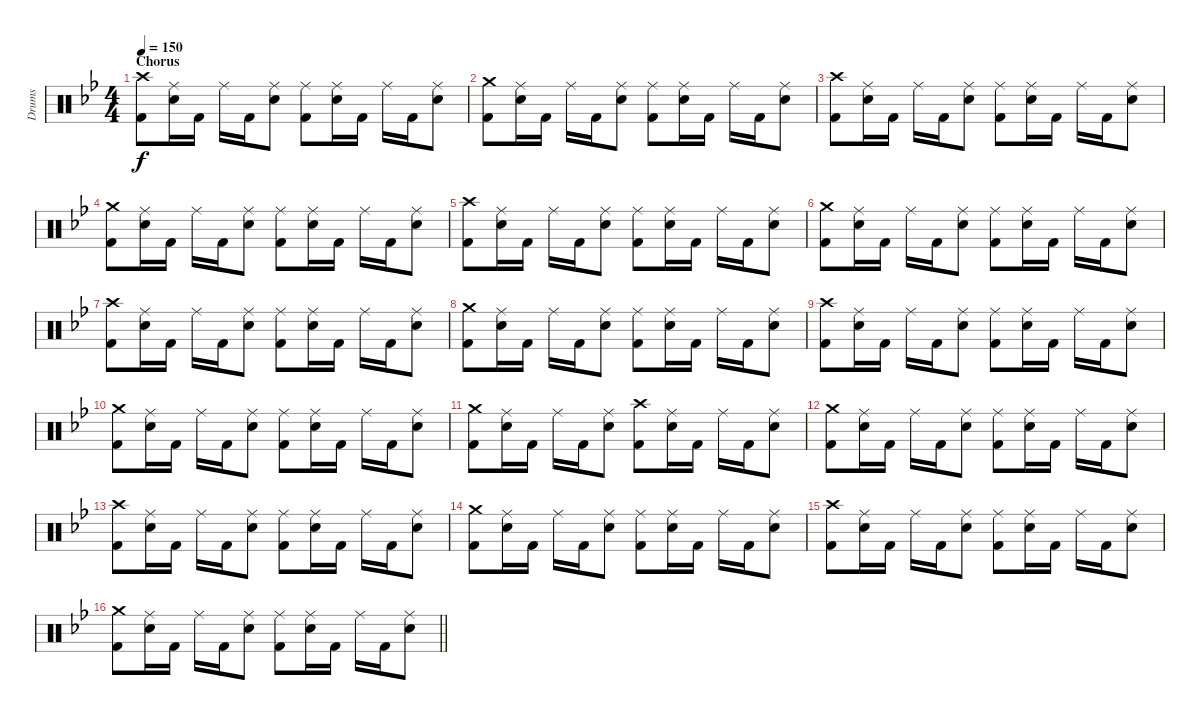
\track ("Drums" "Drums") {instrument percussion}
\staff {score}
\articulation defaults
\ts (4 4)
\section ("" "Chorus")
\tempo 150
\clef neutral
\ks bb
("Crash high (hit)" "Kick (hit) 2").8{dy f} ("Ride (middle)" "Snare (hit) 2").16 "Kick (hit) 2".16 "Ride (middle)".16 "Kick (hit) 2".16 ("Ride (middle)" "Snare (hit) 2").8 ("Ride (middle)" "Kick (hit) 2").8 ("Ride (middle)" "Snare (hit) 2").16 "Kick (hit) 2".16 "Ride (middle)".16 "Kick (hit) 2".16 ("Ride (middle)" "Snare (hit) 2").8 |
("Crash medium (hit)" "Kick (hit) 2").8 ("Ride (middle)" "Snare (hit) 2").16 "Kick (hit) 2".16 "Ride (middle)".16 "Kick (hit) 2".16 ("Ride (middle)" "Snare (hit) 2").8 ("Ride (middle)" "Kick (hit) 2").8 ("Ride (middle)" "Snare (hit) 2").16 "Kick (hit) 2".16 "Ride (middle)".16 "Kick (hit) 2".16 ("Ride (middle)" "Snare (hit) 2").8 |
("Crash high (hit)" "Kick (hit) 2").8 ("Ride (middle)" "Snare (hit) 2").16 "Kick (hit) 2".16 "Ride (middle)".16 "Kick (hit) 2".16 ("Ride (middle)" "Snare (hit) 2").8 ("Ride (middle)" "Kick (hit) 2").8 ("Ride (middle)" "Snare (hit) 2").16 "Kick (hit) 2".16 "Ride (middle)".16 "Kick (hit) 2".16 ("Ride (middle)" "Snare (hit) 2").8 |
("Crash medium (hit)" "Kick (hit) 2").8 ("Ride (middle)" "Snare (hit) 2").16 "Kick (hit) 2".16 "Ride (middle)".16 "Kick (hit) 2".16 ("Ride (middle)" "Snare (hit) 2").8 ("Ride (middle)" "Kick (hit) 2").8 ("Ride (middle)" "Snare (hit) 2").16 "Kick (hit) 2".16 "Ride (middle)".16 "Kick (hit) 2".16 ("Ride (middle)" "Snare (hit) 2").8 |
("Crash high (hit)" "Kick (hit) 2").8 ("Ride (middle)" "Snare (hit) 2").16 "Kick (hit) 2".16 "Ride (middle)".16 "Kick (hit) 2".16 ("Ride (middle)" "Snare (hit) 2").8 ("Ride (middle)" "Kick (hit) 2").8 ("Ride (middle)" "Snare (hit) 2").16 "Kick (hit) 2".16 "Ride (middle)".16 "Kick (hit) 2".16 ("Ride (middle)" "Snare (hit) 2").8 |
("Crash medium (hit)" "Kick (hit) 2").8 ("Ride (middle)" "Snare (hit) 2").16 "Kick (hit) 2".16 "Ride (middle)".16 "Kick (hit) 2".16 ("Ride (middle)" "Snare (hit) 2").8 ("Ride (middle)" "Kick (hit) 2").8 ("Ride (middle)" "Snare (hit) 2").16 "Kick (hit) 2".16 "Ride (middle)".16 "Kick (hit) 2".16 ("Ride (middle)" "Snare (hit) 2").8 |
("Crash high (hit)" "Kick (hit) 2").8 ("Ride (middle)" "Snare (hit) 2").16 "Kick (hit) 2".16 "Ride (middle)".16 "Kick (hit) 2".16 ("Ride (middle)" "Snare (hit) 2").8 ("Ride (middle)" "Kick (hit) 2").8 ("Ride (middle)" "Snare (hit) 2").16 "Kick (hit) 2".16 "Ride (middle)".16 "Kick (hit) 2".16 ("Ride (middle)" "Snare (hit) 2").8 |
("Crash medium (hit)" "Kick (hit) 2").8 ("Ride (middle)" "Snare (hit) 2").16 "Kick (hit) 2".16 "Ride (middle)".16 "Kick (hit) 2".16 ("Ride (middle)" "Snare (hit) 2").8 ("Ride (middle)" "Kick (hit) 2").8 ("Ride (middle)" "Snare (hit) 2").16 "Kick (hit) 2".16 "Ride (middle)".16 "Kick (hit) 2".16 ("Ride (middle)" "Snare (hit) 2").8 |
("Crash high (hit)" "Kick (hit) 2").8 ("Ride (middle)" "Snare (hit) 2").16 "Kick (hit) 2".16 "Ride (middle)".16 "Kick (hit) 2".16 ("Ride (middle)" "Snare (hit) 2").8 ("Ride (middle)" "Kick (hit) 2").8 ("Ride (middle)" "Snare (hit) 2").16 "Kick (hit) 2".16 "Ride (middle)".16 "Kick (hit) 2".16 ("Ride (middle)" "Snare (hit) 2").8 |
("Crash medium (hit)" "Kick (hit) 2").8 ("Ride (middle)" "Snare (hit) 2").16 "Kick (hit) 2".16 "Ride (middle)".16 "Kick (hit) 2".16 ("Ride (middle)" "Snare (hit) 2").8 ("Ride (middle)" "Kick (hit) 2").8 ("Ride (middle)" "Snare (hit) 2").16 "Kick (hit) 2".16 "Ride (middle)".16 "Kick (hit) 2".16 ("Ride (middle)" "Snare (hit) 2").8 |
("Crash medium (hit)" "Kick (hit) 2").8 ("Ride (middle)" "Snare (hit) 2").16 "Kick (hit) 2".16 "Ride (middle)".16 "Kick (hit) 2".16 ("Ride (middle)" "Snare (hit) 2").8 ("Crash high (hit)" "Kick (hit) 2").8 ("Ride (middle)" "Snare (hit) 2").16 "Kick (hit) 2".16 "Ride (middle)".16 "Kick (hit) 2".16 ("Ride (middle)" "Snare (hit) 2").8 |
("Crash medium (hit)" "Kick (hit) 2").8 ("Ride (middle)" "Snare (hit) 2").16 "Kick (hit) 2".16 "Ride (middle)".16 "Kick (hit) 2".16 ("Ride (middle)" "Snare (hit) 2").8 ("Ride (middle)" "Kick (hit) 2").8 ("Ride (middle)" "Snare (hit) 2").16 "Kick (hit) 2".16 "Ride (middle)".16 "Kick (hit) 2".16 ("Ride (middle)" "Snare (hit) 2").8 |
("Crash high (hit)" "Kick (hit) 2").8 ("Ride (middle)" "Snare (hit) 2").16 "Kick (hit) 2".16 "Ride (middle)".16 "Kick (hit) 2".16 ("Ride (middle)" "Snare (hit) 2").8 ("Ride (middle)" "Kick (hit) 2").8 ("Ride (middle)" "Snare (hit) 2").16 "Kick (hit) 2".16 "Ride (middle)".16 "Kick (hit) 2".16 ("Ride (middle)" "Snare (hit) 2").8 |
("Crash medium (hit)" "Kick (hit) 2").8 ("Ride (middle)" "Snare (hit) 2").16 "Kick (hit) 2".16 "Ride (middle)".16 "Kick (hit) 2".16 ("Ride (middle)" "Snare (hit) 2").8 ("Ride (middle)" "Kick (hit) 2").8 ("Ride (middle)" "Snare (hit) 2").16 "Kick (hit) 2".16 "Ride (middle)".16 "Kick (hit) 2".16 ("Ride (middle)" "Snare (hit) 2").8 |
("Crash high (hit)" "Kick (hit) 2").8 ("Ride (middle)" "Snare (hit) 2").16 "Kick (hit) 2".16 "Ride (middle)".16 "Kick (hit) 2".16 ("Ride (middle)" "Snare (hit) 2").8 ("Ride (middle)" "Kick (hit) 2").8 ("Ride (middle)" "Snare (hit) 2").16 "Kick (hit) 2".16 "Ride (middle)".16 "Kick (hit) 2".16 ("Ride (middle)" "Snare (hit) 2").8 |
\barLineRight lightlight
("Crash medium (hit)" "Kick (hit) 2").8 ("Ride (middle)" "Snare (hit) 2").16 "Kick (hit) 2".16 "Ride (middle)".16 "Kick (hit) 2".16 ("Ride (middle)" "Snare (hit) 2").8 ("Ride (middle)" "Kick (hit) 2").8 ("Ride (middle)" "Snare (hit) 2").16 "Kick (hit) 2".16 "Ride (middle)".16 "Kick (hit) 2".16 ("Ride (middle)" "Snare (hit) 2").8
